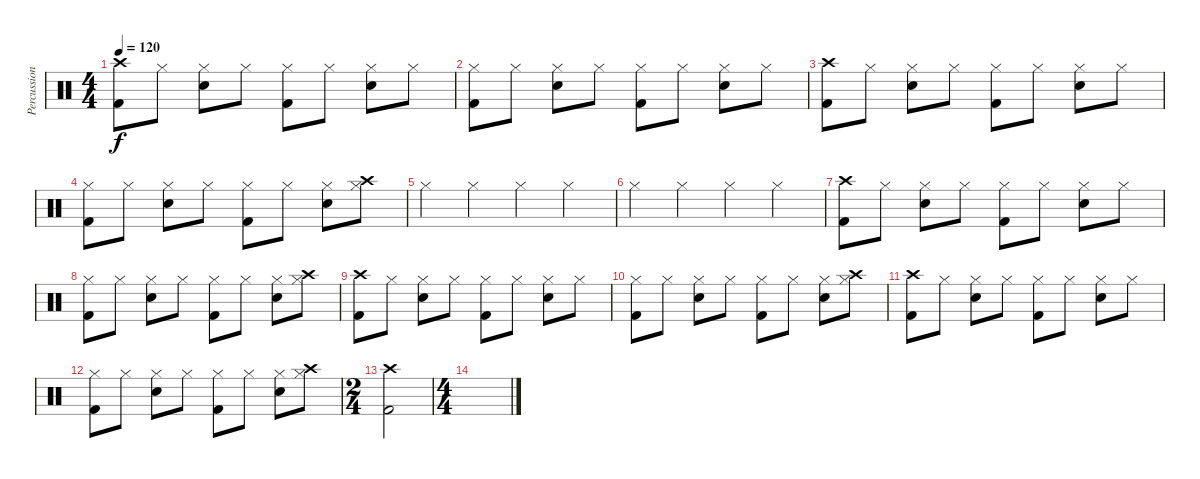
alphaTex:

\track ("Percussion" "Percussion") {instrument percussion}
\staff {score}
\articulation defaults
\ts (4 4)
\tempo 120
\clef neutral
\ks c
("Crash high (hit)" "Kick (hit) 2").8{dy f} "Hi-Hat (closed)".8 ("Hi-Hat (closed)" "Electric Snare (hit)").8 "Hi-Hat (closed)".8 ("Hi-Hat (closed)" "Kick (hit) 2").8 "Hi-Hat (closed)".8 ("Hi-Hat (closed)" "Electric Snare (hit)").8 "Hi-Hat (closed)".8 |
("Hi-Hat (closed)" "Kick (hit) 2").8 "Hi-Hat (closed)".8 ("Hi-Hat (closed)" "Electric Snare (hit)").8 "Hi-Hat (closed)".8 ("Hi-Hat (closed)" "Kick (hit) 2").8 "Hi-Hat (closed)".8 ("Hi-Hat (closed)" "Electric Snare (hit)").8 "Hi-Hat (closed)".8 |
("Crash high (hit)" "Kick (hit) 2").8 "Hi-Hat (closed)".8 ("Hi-Hat (closed)" "Electric Snare (hit)").8 "Hi-Hat (closed)".8 ("Hi-Hat (closed)" "Kick (hit) 2").8 "Hi-Hat (closed)".8 ("Hi-Hat (closed)" "Electric Snare (hit)").8 "Hi-Hat (closed)".8 |
("Hi-Hat (closed)" "Kick (hit) 2").8 "Hi-Hat (closed)".8 ("Hi-Hat (closed)" "Electric Snare (hit)").8 "Hi-Hat (closed)".8 ("Hi-Hat (closed)" "Kick (hit) 2").8 "Hi-Hat (closed)".8 ("Hi-Hat (closed)" "Electric Snare (hit)").8 ("Hi-Hat (closed)" "Crash high (hit)").8 |
"Hi-Hat (closed)".4 "Hi-Hat (closed)".4 "Hi-Hat (closed)".4 "Hi-Hat (closed)".4 |
"Hi-Hat (closed)".4 "Hi-Hat (closed)".4 "Hi-Hat (closed)".4 "Hi-Hat (closed)".4 |
("Crash high (hit)" "Kick (hit) 2").8 "Hi-Hat (closed)".8 ("Hi-Hat (closed)" "Electric Snare (hit)").8 "Hi-Hat (closed)".8 ("Hi-Hat (closed)" "Kick (hit) 2").8 "Hi-Hat (closed)".8 ("Hi-Hat (closed)" "Electric Snare (hit)").8 "Hi-Hat (closed)".8 |
("Hi-Hat (closed)" "Kick (hit) 2").8 "Hi-Hat (closed)".8 ("Hi-Hat (closed)" "Electric Snare (hit)").8 "Hi-Hat (closed)".8 ("Hi-Hat (closed)" "Kick (hit) 2").8 "Hi-Hat (closed)".8 ("Hi-Hat (closed)" "Electric Snare (hit)").8 ("Hi-Hat (closed)" "Crash high (hit)").8 |
("Crash high (hit)" "Kick (hit) 2").8 "Hi-Hat (closed)".8 ("Hi-Hat (closed)" "Electric Snare (hit)").8 "Hi-Hat (closed)".8 ("Hi-Hat (closed)" "Kick (hit) 2").8 "Hi-Hat (closed)".8 ("Hi-Hat (closed)" "Electric Snare (hit)").8 "Hi-Hat (closed)".8 |
("Hi-Hat (closed)" "Kick (hit) 2").8 "Hi-Hat (closed)".8 ("Hi-Hat (closed)" "Electric Snare (hit)").8 "Hi-Hat (closed)".8 ("Hi-Hat (closed)" "Kick (hit) 2").8 "Hi-Hat (closed)".8 ("Hi-Hat (closed)" "Electric Snare (hit)").8 ("Hi-Hat (closed)" "Crash high (hit)").8 |
("Crash high (hit)" "Kick (hit) 2").8 "Hi-Hat (closed)".8 ("Hi-Hat (closed)" "Electric Snare (hit)").8 "Hi-Hat (closed)".8 ("Hi-Hat (closed)" "Kick (hit) 2").8 "Hi-Hat (closed)".8 ("Hi-Hat (closed)" "Electric Snare (hit)").8 "Hi-Hat (closed)".8 |
("Hi-Hat (closed)" "Kick (hit) 2").8 "Hi-Hat (closed)".8 ("Hi-Hat (closed)" "Electric Snare (hit)").8 "Hi-Hat (closed)".8 ("Hi-Hat (closed)" "Kick (hit) 2").8 "Hi-Hat (closed)".8 ("Hi-Hat (closed)" "Electric Snare (hit)").8 ("Hi-Hat (closed)" "Crash high (hit)").8 |
\ts (2 4)
("Crash high (hit)" "Kick (hit) 2").2 |
\ts (4 4)
